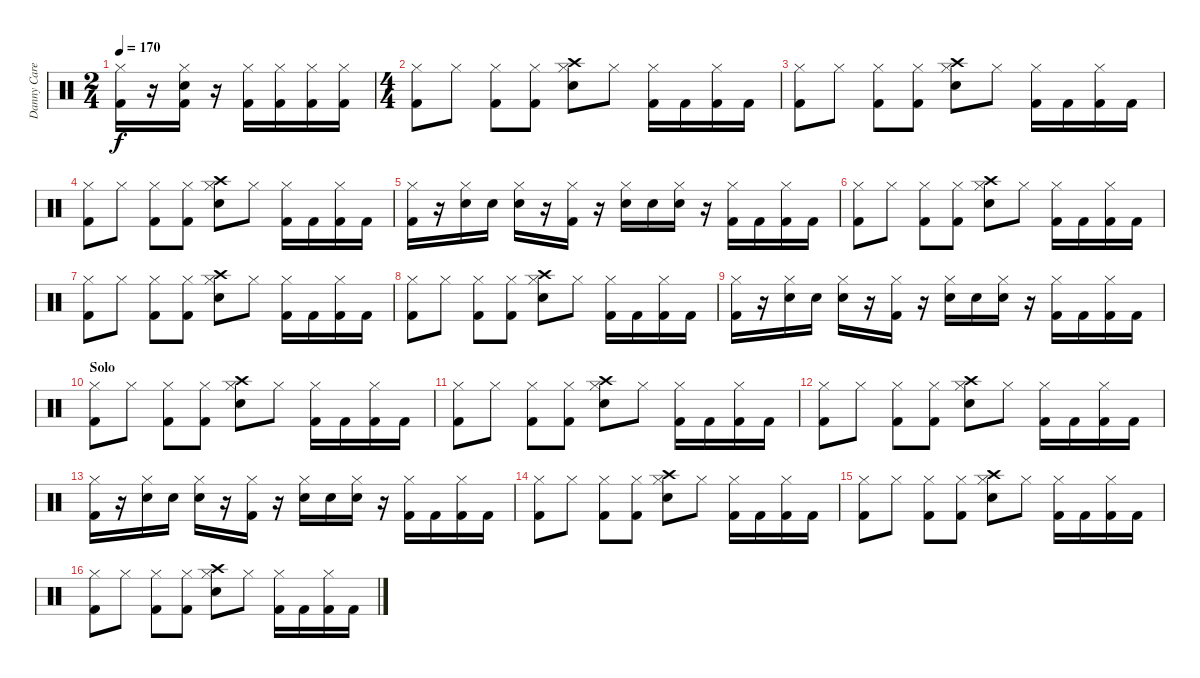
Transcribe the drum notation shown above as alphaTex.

\track ("Danny Carey" "Danny Care") {instrument percussion}
\staff {score}
\articulation defaults
\ts (2 4)
\tempo 170
\clef neutral
\ks c
("Hi-Hat (closed)" "Kick (hit) 2").16{dy f} r.16 ("Hi-Hat (closed)" "Snare (hit) 2" "Kick (hit) 2").16 r.16 ("Hi-Hat (closed)" "Kick (hit) 2").16 ("Hi-Hat (closed)" "Kick (hit) 2").16 ("Hi-Hat (closed)" "Kick (hit) 2").16 ("Hi-Hat (closed)" "Kick (hit) 2").16 |
\ts (4 4)
("Hi-Hat (closed)" "Kick (hit) 2").8 "Hi-Hat (closed)".8 ("Hi-Hat (closed)" "Kick (hit) 2").8 ("Hi-Hat (closed)" "Kick (hit) 2").8 ("Crash high (hit)" "Hi-Hat (closed)" "Snare (hit) 2").8 "Hi-Hat (closed)".8 ("Hi-Hat (closed)" "Kick (hit) 2").16 "Kick (hit) 2".16 ("Hi-Hat (closed)" "Kick (hit) 2").16 "Kick (hit) 2".16 |
("Hi-Hat (closed)" "Kick (hit) 2").8 "Hi-Hat (closed)".8 ("Hi-Hat (closed)" "Kick (hit) 2").8 ("Hi-Hat (closed)" "Kick (hit) 2").8 ("Crash high (hit)" "Hi-Hat (closed)" "Snare (hit) 2").8 "Hi-Hat (closed)".8 ("Hi-Hat (closed)" "Kick (hit) 2").16 "Kick (hit) 2".16 ("Hi-Hat (closed)" "Kick (hit) 2").16 "Kick (hit) 2".16 |
("Hi-Hat (closed)" "Kick (hit) 2").8 "Hi-Hat (closed)".8 ("Hi-Hat (closed)" "Kick (hit) 2").8 ("Hi-Hat (closed)" "Kick (hit) 2").8 ("Crash high (hit)" "Hi-Hat (closed)" "Snare (hit) 2").8 "Hi-Hat (closed)".8 ("Hi-Hat (closed)" "Kick (hit) 2").16 "Kick (hit) 2".16 ("Hi-Hat (closed)" "Kick (hit) 2").16 "Kick (hit) 2".16 |
("Hi-Hat (closed)" "Kick (hit) 2").16 r.16 ("Hi-Hat (closed)" "Snare (hit) 2").16 "Snare (hit) 2".16 ("Hi-Hat (closed)" "Snare (hit) 2").16 r.16 ("Hi-Hat (closed)" "Kick (hit) 2").16 r.16 ("Hi-Hat (closed)" "Snare (hit) 2").16 "Snare (hit) 2".16 ("Hi-Hat (closed)" "Snare (hit) 2").16 r.16 ("Hi-Hat (closed)" "Kick (hit) 2").16 "Kick (hit) 2".16 ("Hi-Hat (closed)" "Kick (hit) 2").16 "Kick (hit) 2".16 |
("Hi-Hat (closed)" "Kick (hit) 2").8 "Hi-Hat (closed)".8 ("Hi-Hat (closed)" "Kick (hit) 2").8 ("Hi-Hat (closed)" "Kick (hit) 2").8 ("Crash high (hit)" "Hi-Hat (closed)" "Snare (hit) 2").8 "Hi-Hat (closed)".8 ("Hi-Hat (closed)" "Kick (hit) 2").16 "Kick (hit) 2".16 ("Hi-Hat (closed)" "Kick (hit) 2").16 "Kick (hit) 2".16 |
("Hi-Hat (closed)" "Kick (hit) 2").8 "Hi-Hat (closed)".8 ("Hi-Hat (closed)" "Kick (hit) 2").8 ("Hi-Hat (closed)" "Kick (hit) 2").8 ("Crash high (hit)" "Hi-Hat (closed)" "Snare (hit) 2").8 "Hi-Hat (closed)".8 ("Hi-Hat (closed)" "Kick (hit) 2").16 "Kick (hit) 2".16 ("Hi-Hat (closed)" "Kick (hit) 2").16 "Kick (hit) 2".16 |
("Hi-Hat (closed)" "Kick (hit) 2").8 "Hi-Hat (closed)".8 ("Hi-Hat (closed)" "Kick (hit) 2").8 ("Hi-Hat (closed)" "Kick (hit) 2").8 ("Crash high (hit)" "Hi-Hat (closed)" "Snare (hit) 2").8 "Hi-Hat (closed)".8 ("Hi-Hat (closed)" "Kick (hit) 2").16 "Kick (hit) 2".16 ("Hi-Hat (closed)" "Kick (hit) 2").16 "Kick (hit) 2".16 |
("Hi-Hat (closed)" "Kick (hit) 2").16 r.16 ("Hi-Hat (closed)" "Snare (hit) 2").16 "Snare (hit) 2".16 ("Hi-Hat (closed)" "Snare (hit) 2").16 r.16 ("Hi-Hat (closed)" "Kick (hit) 2").16 r.16 ("Hi-Hat (closed)" "Snare (hit) 2").16 "Snare (hit) 2".16 ("Hi-Hat (closed)" "Snare (hit) 2").16 r.16 ("Hi-Hat (closed)" "Kick (hit) 2").16 "Kick (hit) 2".16 ("Hi-Hat (closed)" "Kick (hit) 2").16 "Kick (hit) 2".16 |
\section ("" "Solo")
("Hi-Hat (closed)" "Kick (hit) 2").8 "Hi-Hat (closed)".8 ("Hi-Hat (closed)" "Kick (hit) 2").8 ("Hi-Hat (closed)" "Kick (hit) 2").8 ("Crash high (hit)" "Hi-Hat (closed)" "Snare (hit) 2").8 "Hi-Hat (closed)".8 ("Hi-Hat (closed)" "Kick (hit) 2").16 "Kick (hit) 2".16 ("Hi-Hat (closed)" "Kick (hit) 2").16 "Kick (hit) 2".16 |
("Hi-Hat (closed)" "Kick (hit) 2").8 "Hi-Hat (closed)".8 ("Hi-Hat (closed)" "Kick (hit) 2").8 ("Hi-Hat (closed)" "Kick (hit) 2").8 ("Crash high (hit)" "Hi-Hat (closed)" "Snare (hit) 2").8 "Hi-Hat (closed)".8 ("Hi-Hat (closed)" "Kick (hit) 2").16 "Kick (hit) 2".16 ("Hi-Hat (closed)" "Kick (hit) 2").16 "Kick (hit) 2".16 |
("Hi-Hat (closed)" "Kick (hit) 2").8 "Hi-Hat (closed)".8 ("Hi-Hat (closed)" "Kick (hit) 2").8 ("Hi-Hat (closed)" "Kick (hit) 2").8 ("Crash high (hit)" "Hi-Hat (closed)" "Snare (hit) 2").8 "Hi-Hat (closed)".8 ("Hi-Hat (closed)" "Kick (hit) 2").16 "Kick (hit) 2".16 ("Hi-Hat (closed)" "Kick (hit) 2").16 "Kick (hit) 2".16 |
("Hi-Hat (closed)" "Kick (hit) 2").16 r.16 ("Hi-Hat (closed)" "Snare (hit) 2").16 "Snare (hit) 2".16 ("Hi-Hat (closed)" "Snare (hit) 2").16 r.16 ("Hi-Hat (closed)" "Kick (hit) 2").16 r.16 ("Hi-Hat (closed)" "Snare (hit) 2").16 "Snare (hit) 2".16 ("Hi-Hat (closed)" "Snare (hit) 2").16 r.16 ("Hi-Hat (closed)" "Kick (hit) 2").16 "Kick (hit) 2".16 ("Hi-Hat (closed)" "Kick (hit) 2").16 "Kick (hit) 2".16 |
("Hi-Hat (closed)" "Kick (hit) 2").8 "Hi-Hat (closed)".8 ("Hi-Hat (closed)" "Kick (hit) 2").8 ("Hi-Hat (closed)" "Kick (hit) 2").8 ("Crash high (hit)" "Hi-Hat (closed)" "Snare (hit) 2").8 "Hi-Hat (closed)".8 ("Hi-Hat (closed)" "Kick (hit) 2").16 "Kick (hit) 2".16 ("Hi-Hat (closed)" "Kick (hit) 2").16 "Kick (hit) 2".16 |
("Hi-Hat (closed)" "Kick (hit) 2").8 "Hi-Hat (closed)".8 ("Hi-Hat (closed)" "Kick (hit) 2").8 ("Hi-Hat (closed)" "Kick (hit) 2").8 ("Crash high (hit)" "Hi-Hat (closed)" "Snare (hit) 2").8 "Hi-Hat (closed)".8 ("Hi-Hat (closed)" "Kick (hit) 2").16 "Kick (hit) 2".16 ("Hi-Hat (closed)" "Kick (hit) 2").16 "Kick (hit) 2".16 |
("Hi-Hat (closed)" "Kick (hit) 2").8 "Hi-Hat (closed)".8 ("Hi-Hat (closed)" "Kick (hit) 2").8 ("Hi-Hat (closed)" "Kick (hit) 2").8 ("Crash high (hit)" "Hi-Hat (closed)" "Snare (hit) 2").8 "Hi-Hat (closed)".8 ("Hi-Hat (closed)" "Kick (hit) 2").16 "Kick (hit) 2".16 ("Hi-Hat (closed)" "Kick (hit) 2").16 "Kick (hit) 2".16
